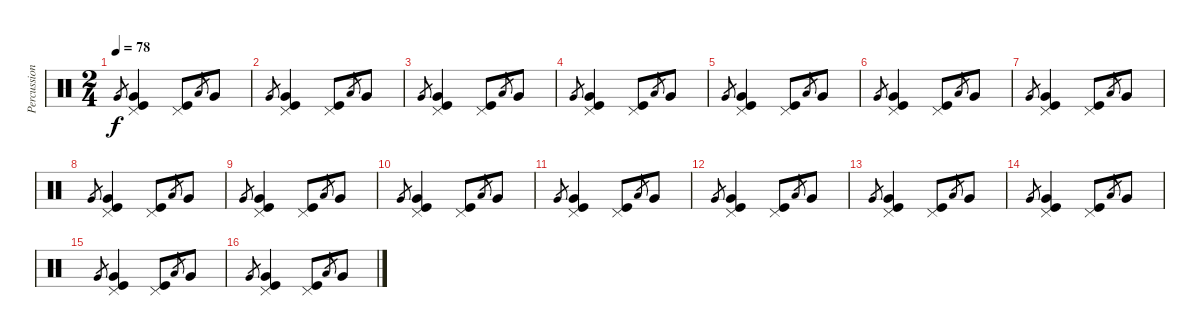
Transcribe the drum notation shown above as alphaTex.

\track ("Percussions" "Percussion") {instrument percussion}
\staff {score}
\articulation defaults
\ts (2 4)
\tempo 78
\clef neutral
\ks c "Very Low Tom (hit)".8{gr dy f}
("Pedal Hi-Hat (hit)" "Kick (hit)" "Very Low Tom (hit)").4 ("Pedal Hi-Hat (hit)" "Kick (hit)").8 "Low Floor Tom (hit)".8{gr} "Very Low Tom (hit)".8 |
"Very Low Tom (hit)".8{gr} ("Pedal Hi-Hat (hit)" "Kick (hit)" "Very Low Tom (hit)").4 ("Pedal Hi-Hat (hit)" "Kick (hit)").8 "Low Floor Tom (hit)".8{gr} "Very Low Tom (hit)".8 |
"Very Low Tom (hit)".8{gr} ("Pedal Hi-Hat (hit)" "Kick (hit)" "Very Low Tom (hit)").4 ("Pedal Hi-Hat (hit)" "Kick (hit)").8 "Low Floor Tom (hit)".8{gr} "Very Low Tom (hit)".8 |
"Very Low Tom (hit)".8{gr} ("Pedal Hi-Hat (hit)" "Kick (hit)" "Very Low Tom (hit)").4 ("Pedal Hi-Hat (hit)" "Kick (hit)").8 "Low Floor Tom (hit)".8{gr} "Very Low Tom (hit)".8 |
"Very Low Tom (hit)".8{gr} ("Pedal Hi-Hat (hit)" "Kick (hit)" "Very Low Tom (hit)").4 ("Pedal Hi-Hat (hit)" "Kick (hit)").8 "Low Floor Tom (hit)".8{gr} "Very Low Tom (hit)".8 |
"Very Low Tom (hit)".8{gr} ("Pedal Hi-Hat (hit)" "Kick (hit)" "Very Low Tom (hit)").4 ("Pedal Hi-Hat (hit)" "Kick (hit)").8 "Low Floor Tom (hit)".8{gr} "Very Low Tom (hit)".8 |
"Very Low Tom (hit)".8{gr} ("Pedal Hi-Hat (hit)" "Kick (hit)" "Very Low Tom (hit)").4 ("Pedal Hi-Hat (hit)" "Kick (hit)").8 "Low Floor Tom (hit)".8{gr} "Very Low Tom (hit)".8 |
"Very Low Tom (hit)".8{gr} ("Pedal Hi-Hat (hit)" "Kick (hit)" "Very Low Tom (hit)").4 ("Pedal Hi-Hat (hit)" "Kick (hit)").8 "Low Floor Tom (hit)".8{gr} "Very Low Tom (hit)".8 |
"Very Low Tom (hit)".8{gr} ("Pedal Hi-Hat (hit)" "Kick (hit)" "Very Low Tom (hit)").4 ("Pedal Hi-Hat (hit)" "Kick (hit)").8 "Low Floor Tom (hit)".8{gr} "Very Low Tom (hit)".8 |
"Very Low Tom (hit)".8{gr} ("Pedal Hi-Hat (hit)" "Kick (hit)" "Very Low Tom (hit)").4 ("Pedal Hi-Hat (hit)" "Kick (hit)").8 "Low Floor Tom (hit)".8{gr} "Very Low Tom (hit)".8 |
"Very Low Tom (hit)".8{gr} ("Pedal Hi-Hat (hit)" "Kick (hit)" "Very Low Tom (hit)").4 ("Pedal Hi-Hat (hit)" "Kick (hit)").8 "Low Floor Tom (hit)".8{gr} "Very Low Tom (hit)".8 |
"Very Low Tom (hit)".8{gr} ("Pedal Hi-Hat (hit)" "Kick (hit)" "Very Low Tom (hit)").4 ("Pedal Hi-Hat (hit)" "Kick (hit)").8 "Low Floor Tom (hit)".8{gr} "Very Low Tom (hit)".8 |
"Very Low Tom (hit)".8{gr} ("Pedal Hi-Hat (hit)" "Kick (hit)" "Very Low Tom (hit)").4 ("Pedal Hi-Hat (hit)" "Kick (hit)").8 "Low Floor Tom (hit)".8{gr} "Very Low Tom (hit)".8 |
"Very Low Tom (hit)".8{gr} ("Pedal Hi-Hat (hit)" "Kick (hit)" "Very Low Tom (hit)").4 ("Pedal Hi-Hat (hit)" "Kick (hit)").8 "Low Floor Tom (hit)".8{gr} "Very Low Tom (hit)".8 |
"Very Low Tom (hit)".8{gr} ("Pedal Hi-Hat (hit)" "Kick (hit)" "Very Low Tom (hit)").4 ("Pedal Hi-Hat (hit)" "Kick (hit)").8 "Low Floor Tom (hit)".8{gr} "Very Low Tom (hit)".8 |
"Very Low Tom (hit)".8{gr} ("Pedal Hi-Hat (hit)" "Kick (hit)" "Very Low Tom (hit)").4 ("Pedal Hi-Hat (hit)" "Kick (hit)").8 "Low Floor Tom (hit)".8{gr} "Very Low Tom (hit)".8
